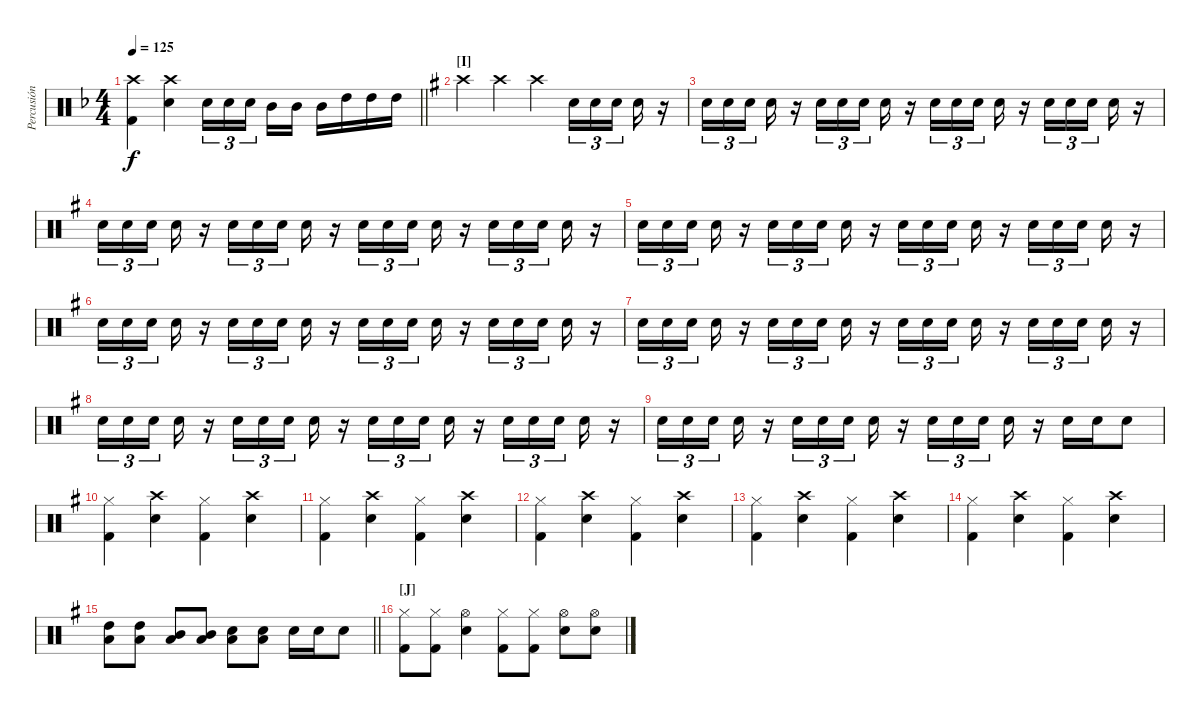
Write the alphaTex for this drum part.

\track ("Percusión" "Percusión") {instrument percussion}
\staff {score}
\articulation defaults
\ts (4 4)
\tempo 125
\clef neutral
\barLineRight lightlight
\ks f
("Crash high (hit)" "Kick (hit) 2").4{dy f} ("Crash high (hit)" "Snare (hit) 2").4 "Snare (hit) 2".16{tu (3 2)} "Snare (hit) 2".16{tu (3 2)} "Snare (hit) 2".16{tu (3 2) beam splitsecondary} "Mid Tom (hit)".16 "Mid Tom (hit)".16 "Mid Tom (hit)".16 "High Tom (hit)".16 "High Tom (hit)".16 "High Tom (hit)".16 |
\section ("" "[I]")
\ks g "Crash high (hit)".4 "Crash high (hit)".4 "Crash high (hit)".4 "Snare (hit) 2".16{tu (3 2)} "Snare (hit) 2".16{tu (3 2)} "Snare (hit) 2".16{tu (3 2) beam splitsecondary} "Snare (hit) 2".16
r.16 |
"Snare (hit) 2".16{tu (3 2)} "Snare (hit) 2".16{tu (3 2)} "Snare (hit) 2".16{tu (3 2) beam splitsecondary} "Snare (hit) 2".16 r.16 "Snare (hit) 2".16{tu (3 2)} "Snare (hit) 2".16{tu (3 2)} "Snare (hit) 2".16{tu (3 2) beam splitsecondary} "Snare (hit) 2".16 r.16 "Snare (hit) 2".16{tu (3 2)} "Snare (hit) 2".16{tu (3 2)} "Snare (hit) 2".16{tu (3 2) beam splitsecondary} "Snare (hit) 2".16 r.16 "Snare (hit) 2".16{tu (3 2)} "Snare (hit) 2".16{tu (3 2)} "Snare (hit) 2".16{tu (3 2) beam splitsecondary} "Snare (hit) 2".16 r.16 |
"Snare (hit) 2".16{tu (3 2)} "Snare (hit) 2".16{tu (3 2)} "Snare (hit) 2".16{tu (3 2) beam splitsecondary} "Snare (hit) 2".16 r.16 "Snare (hit) 2".16{tu (3 2)} "Snare (hit) 2".16{tu (3 2)} "Snare (hit) 2".16{tu (3 2) beam splitsecondary} "Snare (hit) 2".16 r.16 "Snare (hit) 2".16{tu (3 2)} "Snare (hit) 2".16{tu (3 2)} "Snare (hit) 2".16{tu (3 2) beam splitsecondary} "Snare (hit) 2".16 r.16 "Snare (hit) 2".16{tu (3 2)} "Snare (hit) 2".16{tu (3 2)} "Snare (hit) 2".16{tu (3 2) beam splitsecondary} "Snare (hit) 2".16 r.16 |
"Snare (hit) 2".16{tu (3 2)} "Snare (hit) 2".16{tu (3 2)} "Snare (hit) 2".16{tu (3 2) beam splitsecondary} "Snare (hit) 2".16 r.16 "Snare (hit) 2".16{tu (3 2)} "Snare (hit) 2".16{tu (3 2)} "Snare (hit) 2".16{tu (3 2) beam splitsecondary} "Snare (hit) 2".16 r.16 "Snare (hit) 2".16{tu (3 2)} "Snare (hit) 2".16{tu (3 2)} "Snare (hit) 2".16{tu (3 2) beam splitsecondary} "Snare (hit) 2".16 r.16 "Snare (hit) 2".16{tu (3 2)} "Snare (hit) 2".16{tu (3 2)} "Snare (hit) 2".16{tu (3 2) beam splitsecondary} "Snare (hit) 2".16 r.16 |
"Snare (hit) 2".16{tu (3 2)} "Snare (hit) 2".16{tu (3 2)} "Snare (hit) 2".16{tu (3 2) beam splitsecondary} "Snare (hit) 2".16 r.16 "Snare (hit) 2".16{tu (3 2)} "Snare (hit) 2".16{tu (3 2)} "Snare (hit) 2".16{tu (3 2) beam splitsecondary} "Snare (hit) 2".16 r.16 "Snare (hit) 2".16{tu (3 2)} "Snare (hit) 2".16{tu (3 2)} "Snare (hit) 2".16{tu (3 2) beam splitsecondary} "Snare (hit) 2".16 r.16 "Snare (hit) 2".16{tu (3 2)} "Snare (hit) 2".16{tu (3 2)} "Snare (hit) 2".16{tu (3 2) beam splitsecondary} "Snare (hit) 2".16 r.16 |
"Snare (hit) 2".16{tu (3 2)} "Snare (hit) 2".16{tu (3 2)} "Snare (hit) 2".16{tu (3 2) beam splitsecondary} "Snare (hit) 2".16 r.16 "Snare (hit) 2".16{tu (3 2)} "Snare (hit) 2".16{tu (3 2)} "Snare (hit) 2".16{tu (3 2) beam splitsecondary} "Snare (hit) 2".16 r.16 "Snare (hit) 2".16{tu (3 2)} "Snare (hit) 2".16{tu (3 2)} "Snare (hit) 2".16{tu (3 2) beam splitsecondary} "Snare (hit) 2".16 r.16 "Snare (hit) 2".16{tu (3 2)} "Snare (hit) 2".16{tu (3 2)} "Snare (hit) 2".16{tu (3 2) beam splitsecondary} "Snare (hit) 2".16 r.16 |
"Snare (hit) 2".16{tu (3 2)} "Snare (hit) 2".16{tu (3 2)} "Snare (hit) 2".16{tu (3 2) beam splitsecondary} "Snare (hit) 2".16 r.16 "Snare (hit) 2".16{tu (3 2)} "Snare (hit) 2".16{tu (3 2)} "Snare (hit) 2".16{tu (3 2) beam splitsecondary} "Snare (hit) 2".16 r.16 "Snare (hit) 2".16{tu (3 2)} "Snare (hit) 2".16{tu (3 2)} "Snare (hit) 2".16{tu (3 2) beam splitsecondary} "Snare (hit) 2".16 r.16 "Snare (hit) 2".16{tu (3 2)} "Snare (hit) 2".16{tu (3 2)} "Snare (hit) 2".16{tu (3 2) beam splitsecondary} "Snare (hit) 2".16 r.16 |
"Snare (hit) 2".16{tu (3 2)} "Snare (hit) 2".16{tu (3 2)} "Snare (hit) 2".16{tu (3 2) beam splitsecondary} "Snare (hit) 2".16 r.16 "Snare (hit) 2".16{tu (3 2)} "Snare (hit) 2".16{tu (3 2)} "Snare (hit) 2".16{tu (3 2) beam splitsecondary} "Snare (hit) 2".16 r.16 "Snare (hit) 2".16{tu (3 2)} "Snare (hit) 2".16{tu (3 2)} "Snare (hit) 2".16{tu (3 2) beam splitsecondary} "Snare (hit) 2".16 r.16 "Snare (hit) 2".16 "Snare (hit) 2".16 "Snare (hit) 2".8 |
("Hi-Hat (closed)" "Kick (hit) 2").4 ("Crash high (hit)" "Snare (hit) 2").4 ("Hi-Hat (closed)" "Kick (hit) 2").4 ("Crash high (hit)" "Snare (hit) 2").4 |
("Hi-Hat (closed)" "Kick (hit) 2").4 ("Crash high (hit)" "Snare (hit) 2").4 ("Hi-Hat (closed)" "Kick (hit) 2").4 ("Crash high (hit)" "Snare (hit) 2").4 |
("Hi-Hat (closed)" "Kick (hit) 2").4 ("Crash high (hit)" "Snare (hit) 2").4 ("Hi-Hat (closed)" "Kick (hit) 2").4 ("Crash high (hit)" "Snare (hit) 2").4 |
("Hi-Hat (closed)" "Kick (hit) 2").4 ("Crash high (hit)" "Snare (hit) 2").4 ("Hi-Hat (closed)" "Kick (hit) 2").4 ("Crash high (hit)" "Snare (hit) 2").4 |
("Hi-Hat (closed)" "Kick (hit) 2").4 ("Crash high (hit)" "Snare (hit) 2").4 ("Hi-Hat (closed)" "Kick (hit) 2").4 ("Crash high (hit)" "Snare (hit) 2").4 |
\barLineRight lightlight
("High Tom (hit)" "Low Floor Tom (hit)").8 ("High Tom (hit)" "Low Floor Tom (hit)").8 ("Mid Tom (hit)" "Low Floor Tom (hit)").8 ("Mid Tom (hit)" "Low Floor Tom (hit)").8 ("Snare (hit) 2" "Low Floor Tom (hit)").8 ("Snare (hit) 2" "Low Floor Tom (hit)").8 "Snare (hit) 2".16 "Snare (hit) 2".16 "Snare (hit) 2".8 |
\section ("" "[J]")
("Kick (hit) 2" "Hi-Hat (closed)").8 ("Kick (hit) 2" "Hi-Hat (closed)").8 ("Snare (hit) 2" "Hi-Hat (open)").4 ("Kick (hit) 2" "Hi-Hat (closed)").8 ("Kick (hit) 2" "Hi-Hat (closed)").8 ("Snare (hit) 2" "Hi-Hat (open)").8 ("Snare (hit) 2" "Hi-Hat (open)").8
